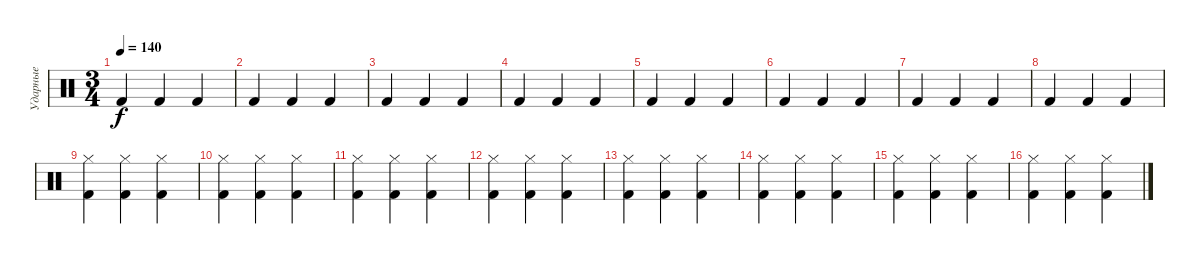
\track ("Ударные" "Ударные") {instrument percussion}
\staff {score}
\articulation defaults
\ts (3 4)
\tempo 140
\clef neutral
\ks c "Kick (hit) 2".4{dy f} "Kick (hit) 2".4 "Kick (hit) 2".4
|
"Kick (hit) 2".4 "Kick (hit) 2".4 "Kick (hit) 2".4 |
"Kick (hit) 2".4 "Kick (hit) 2".4 "Kick (hit) 2".4 |
"Kick (hit) 2".4 "Kick (hit) 2".4 "Kick (hit) 2".4 |
"Kick (hit) 2".4 "Kick (hit) 2".4 "Kick (hit) 2".4 |
"Kick (hit) 2".4 "Kick (hit) 2".4 "Kick (hit) 2".4 |
"Kick (hit) 2".4 "Kick (hit) 2".4 "Kick (hit) 2".4 |
"Kick (hit) 2".4 "Kick (hit) 2".4 "Kick (hit) 2".4 |
("Hi-Hat (closed)" "Kick (hit) 2").4 ("Hi-Hat (closed)" "Kick (hit) 2").4 ("Hi-Hat (closed)" "Kick (hit) 2").4 |
("Hi-Hat (closed)" "Kick (hit) 2").4 ("Hi-Hat (closed)" "Kick (hit) 2").4 ("Hi-Hat (closed)" "Kick (hit) 2").4 |
("Hi-Hat (closed)" "Kick (hit) 2").4 ("Hi-Hat (closed)" "Kick (hit) 2").4 ("Hi-Hat (closed)" "Kick (hit) 2").4 |
("Hi-Hat (closed)" "Kick (hit) 2").4 ("Hi-Hat (closed)" "Kick (hit) 2").4 ("Hi-Hat (closed)" "Kick (hit) 2").4 |
("Hi-Hat (closed)" "Kick (hit) 2").4 ("Hi-Hat (closed)" "Kick (hit) 2").4 ("Hi-Hat (closed)" "Kick (hit) 2").4 |
("Hi-Hat (closed)" "Kick (hit) 2").4 ("Hi-Hat (closed)" "Kick (hit) 2").4 ("Hi-Hat (closed)" "Kick (hit) 2").4 |
("Hi-Hat (closed)" "Kick (hit) 2").4 ("Hi-Hat (closed)" "Kick (hit) 2").4 ("Hi-Hat (closed)" "Kick (hit) 2").4 |
("Hi-Hat (closed)" "Kick (hit) 2").4 ("Hi-Hat (closed)" "Kick (hit) 2").4 ("Hi-Hat (closed)" "Kick (hit) 2").4
